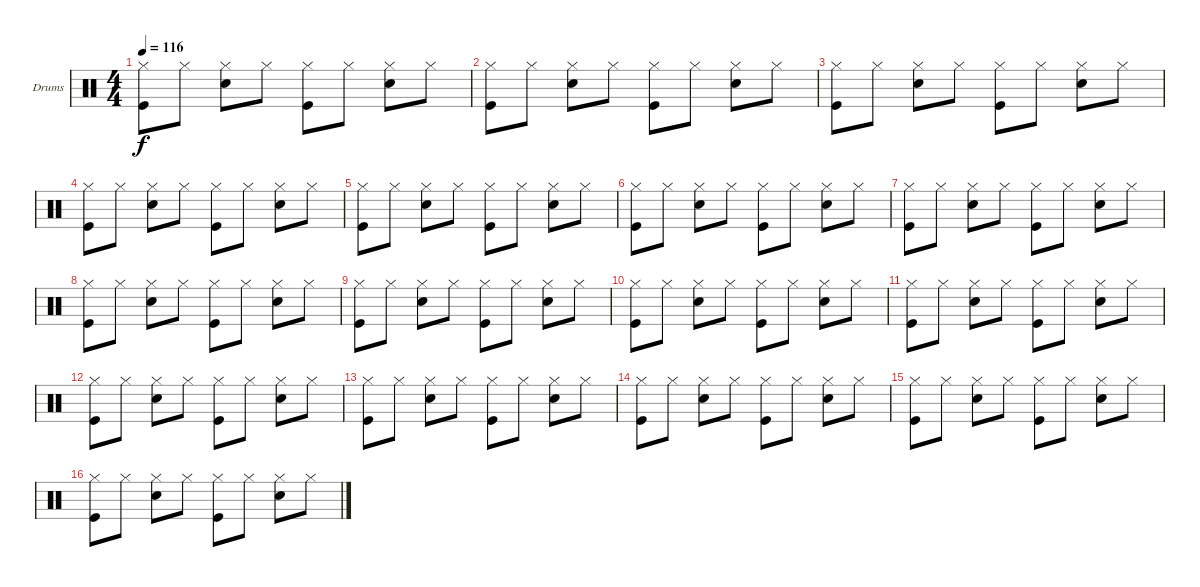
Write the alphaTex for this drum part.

\bracketExtendMode groupsimilarinstruments
\firstSystemTrackNameOrientation horizontal
\otherSystemsTrackNameOrientation horizontal
\track ("Drumkit" "Drums") {instrument percussion}
\staff {score}
\articulation defaults
\ts (4 4)
\tempo 116
\clef neutral
\ks c
("Hi-Hat (closed)" "Kick (hit)").8{dy f} "Hi-Hat (closed)".8 ("Hi-Hat (closed)" "Snare (hit) 2").8 "Hi-Hat (closed)".8 ("Hi-Hat (closed)" "Kick (hit)").8 "Hi-Hat (closed)".8 ("Hi-Hat (closed)" "Snare (hit) 2").8 "Hi-Hat (closed)".8 |
("Hi-Hat (closed)" "Kick (hit)").8 "Hi-Hat (closed)".8 ("Hi-Hat (closed)" "Snare (hit) 2").8 "Hi-Hat (closed)".8 ("Hi-Hat (closed)" "Kick (hit)").8 "Hi-Hat (closed)".8 ("Hi-Hat (closed)" "Snare (hit) 2").8 "Hi-Hat (closed)".8 |
("Hi-Hat (closed)" "Kick (hit)").8 "Hi-Hat (closed)".8 ("Hi-Hat (closed)" "Snare (hit) 2").8 "Hi-Hat (closed)".8 ("Hi-Hat (closed)" "Kick (hit)").8 "Hi-Hat (closed)".8 ("Hi-Hat (closed)" "Snare (hit) 2").8 "Hi-Hat (closed)".8 |
("Hi-Hat (closed)" "Kick (hit)").8 "Hi-Hat (closed)".8 ("Hi-Hat (closed)" "Snare (hit) 2").8 "Hi-Hat (closed)".8 ("Hi-Hat (closed)" "Kick (hit)").8 "Hi-Hat (closed)".8 ("Hi-Hat (closed)" "Snare (hit) 2").8 "Hi-Hat (closed)".8 |
("Hi-Hat (closed)" "Kick (hit)").8 "Hi-Hat (closed)".8 ("Hi-Hat (closed)" "Snare (hit) 2").8 "Hi-Hat (closed)".8 ("Hi-Hat (closed)" "Kick (hit)").8 "Hi-Hat (closed)".8 ("Hi-Hat (closed)" "Snare (hit) 2").8 "Hi-Hat (closed)".8 |
("Hi-Hat (closed)" "Kick (hit)").8 "Hi-Hat (closed)".8 ("Hi-Hat (closed)" "Snare (hit) 2").8 "Hi-Hat (closed)".8 ("Hi-Hat (closed)" "Kick (hit)").8 "Hi-Hat (closed)".8 ("Hi-Hat (closed)" "Snare (hit) 2").8 "Hi-Hat (closed)".8 |
("Hi-Hat (closed)" "Kick (hit)").8 "Hi-Hat (closed)".8 ("Hi-Hat (closed)" "Snare (hit) 2").8 "Hi-Hat (closed)".8 ("Hi-Hat (closed)" "Kick (hit)").8 "Hi-Hat (closed)".8 ("Hi-Hat (closed)" "Snare (hit) 2").8 "Hi-Hat (closed)".8 |
("Hi-Hat (closed)" "Kick (hit)").8 "Hi-Hat (closed)".8 ("Hi-Hat (closed)" "Snare (hit) 2").8 "Hi-Hat (closed)".8 ("Hi-Hat (closed)" "Kick (hit)").8 "Hi-Hat (closed)".8 ("Hi-Hat (closed)" "Snare (hit) 2").8 "Hi-Hat (closed)".8 |
("Hi-Hat (closed)" "Kick (hit)").8 "Hi-Hat (closed)".8 ("Hi-Hat (closed)" "Snare (hit) 2").8 "Hi-Hat (closed)".8 ("Hi-Hat (closed)" "Kick (hit)").8 "Hi-Hat (closed)".8 ("Hi-Hat (closed)" "Snare (hit) 2").8 "Hi-Hat (closed)".8 |
("Hi-Hat (closed)" "Kick (hit)").8 "Hi-Hat (closed)".8 ("Hi-Hat (closed)" "Snare (hit) 2").8 "Hi-Hat (closed)".8 ("Hi-Hat (closed)" "Kick (hit)").8 "Hi-Hat (closed)".8 ("Hi-Hat (closed)" "Snare (hit) 2").8 "Hi-Hat (closed)".8 |
("Hi-Hat (closed)" "Kick (hit)").8 "Hi-Hat (closed)".8 ("Hi-Hat (closed)" "Snare (hit) 2").8 "Hi-Hat (closed)".8 ("Hi-Hat (closed)" "Kick (hit)").8 "Hi-Hat (closed)".8 ("Hi-Hat (closed)" "Snare (hit) 2").8 "Hi-Hat (closed)".8 |
("Hi-Hat (closed)" "Kick (hit)").8 "Hi-Hat (closed)".8 ("Hi-Hat (closed)" "Snare (hit) 2").8 "Hi-Hat (closed)".8 ("Hi-Hat (closed)" "Kick (hit)").8 "Hi-Hat (closed)".8 ("Hi-Hat (closed)" "Snare (hit) 2").8 "Hi-Hat (closed)".8 |
("Hi-Hat (closed)" "Kick (hit)").8 "Hi-Hat (closed)".8 ("Hi-Hat (closed)" "Snare (hit) 2").8 "Hi-Hat (closed)".8 ("Hi-Hat (closed)" "Kick (hit)").8 "Hi-Hat (closed)".8 ("Hi-Hat (closed)" "Snare (hit) 2").8 "Hi-Hat (closed)".8 |
("Hi-Hat (closed)" "Kick (hit)").8 "Hi-Hat (closed)".8 ("Hi-Hat (closed)" "Snare (hit) 2").8 "Hi-Hat (closed)".8 ("Hi-Hat (closed)" "Kick (hit)").8 "Hi-Hat (closed)".8 ("Hi-Hat (closed)" "Snare (hit) 2").8 "Hi-Hat (closed)".8 |
("Hi-Hat (closed)" "Kick (hit)").8 "Hi-Hat (closed)".8 ("Hi-Hat (closed)" "Snare (hit) 2").8 "Hi-Hat (closed)".8 ("Hi-Hat (closed)" "Kick (hit)").8 "Hi-Hat (closed)".8 ("Hi-Hat (closed)" "Snare (hit) 2").8 "Hi-Hat (closed)".8 |
("Hi-Hat (closed)" "Kick (hit)").8 "Hi-Hat (closed)".8 ("Hi-Hat (closed)" "Snare (hit) 2").8 "Hi-Hat (closed)".8 ("Hi-Hat (closed)" "Kick (hit)").8 "Hi-Hat (closed)".8 ("Hi-Hat (closed)" "Snare (hit) 2").8 "Hi-Hat (closed)".8
